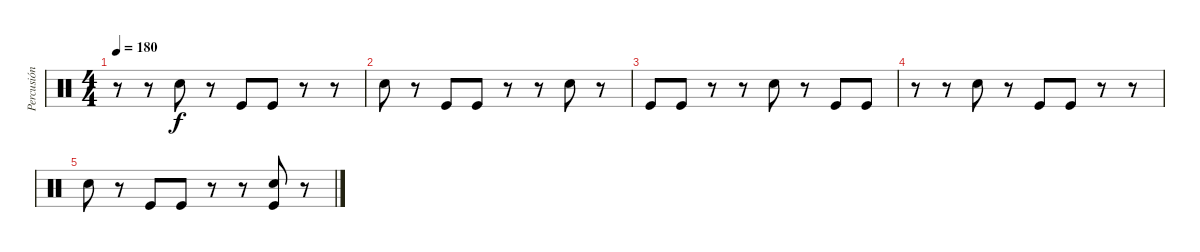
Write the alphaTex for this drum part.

\track ("Percusión" "Percusión") {instrument percussion}
\staff {score}
\articulation defaults
\ts (4 4)
\tempo 180
\clef neutral
\ks c
r.8{dy f} r.8 "Snare (hit) 2".8 r.8 "Kick (hit)".8 "Kick (hit)".8 r.8 r.8 |
"Snare (hit) 2".8 r.8 "Kick (hit)".8 "Kick (hit)".8 r.8 r.8 "Snare (hit) 2".8 r.8 |
"Kick (hit)".8 "Kick (hit)".8 r.8 r.8 "Snare (hit) 2".8 r.8 "Kick (hit)".8 "Kick (hit)".8 |
r.8 r.8 "Snare (hit) 2".8 r.8 "Kick (hit)".8 "Kick (hit)".8 r.8 r.8 |
"Snare (hit) 2".8 r.8 "Kick (hit)".8 "Kick (hit)".8 r.8 r.8 ("Snare (hit) 2" "Kick (hit)").8 r.8
